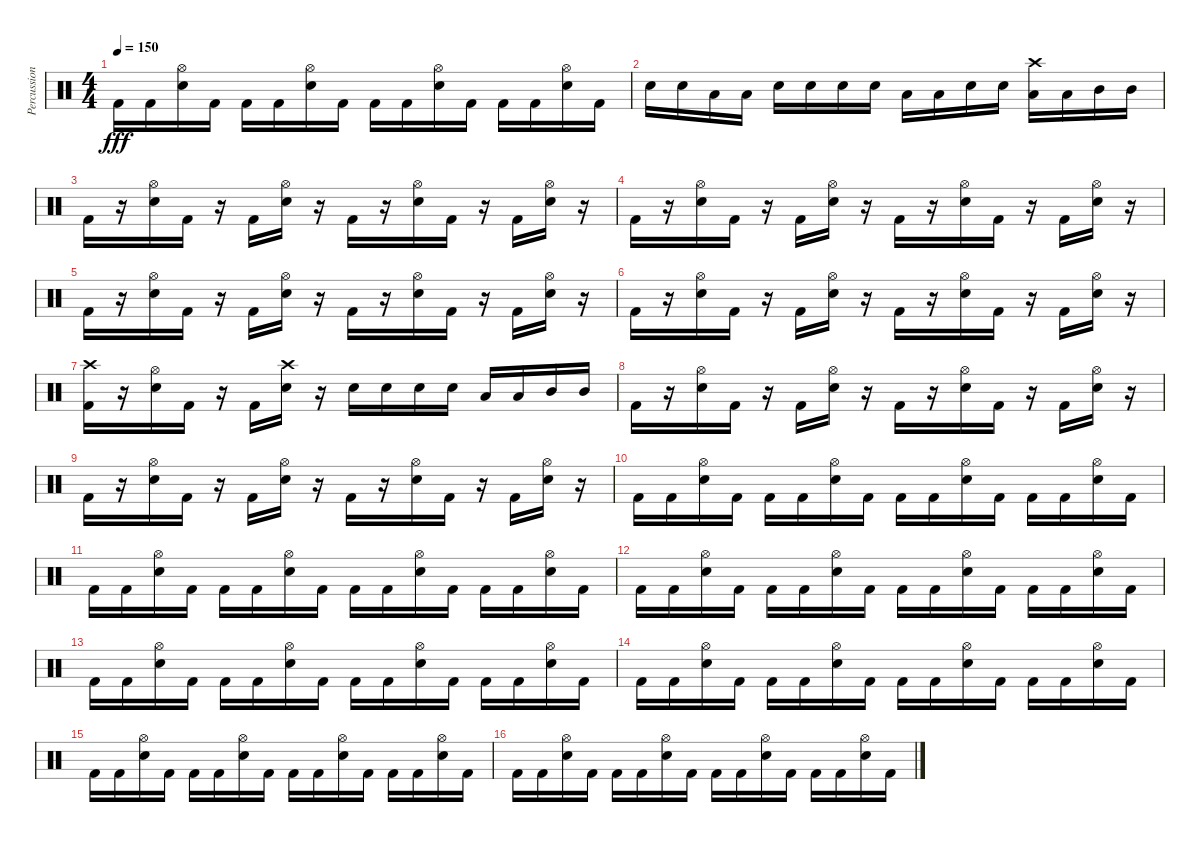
\track ("Percussion" "Percussion") {instrument percussion}
\staff {score}
\articulation defaults
\ts (4 4)
\tempo 150
\clef neutral
\ks c "Kick (hit) 2".16{dy fff} "Kick (hit) 2".16
("Snare (hit) 2" "Hi-Hat (open)").16 "Kick (hit) 2".16 "Kick (hit) 2".16 "Kick (hit) 2".16 ("Snare (hit) 2" "Hi-Hat (open)").16 "Kick (hit) 2".16 "Kick (hit) 2".16 "Kick (hit) 2".16 ("Snare (hit) 2" "Hi-Hat (open)").16 "Kick (hit) 2".16 "Kick (hit) 2".16 "Kick (hit) 2".16 ("Snare (hit) 2" "Hi-Hat (open)").16 "Kick (hit) 2".16 |
"Snare (hit) 2".16 "Snare (hit) 2".16 "Low Tom (hit)".16 "Low Tom (hit)".16 "Snare (hit) 2".16 "Snare (hit) 2".16 "Snare (hit) 2".16 "Snare (hit) 2".16 "Low Tom (hit)".16 "Low Tom (hit)".16 "Snare (hit) 2".16 "Snare (hit) 2".16 ("Low Tom (hit)" "Crash high (hit)").16 "Low Tom (hit)".16 "Mid Tom (hit)".16 "Mid Tom (hit)".16 |
"Kick (hit) 2".16 r.16 ("Snare (hit) 2" "Hi-Hat (open)").16 "Kick (hit) 2".16 r.16 "Kick (hit) 2".16 ("Snare (hit) 2" "Hi-Hat (open)").16 r.16 "Kick (hit) 2".16 r.16 ("Snare (hit) 2" "Hi-Hat (open)").16 "Kick (hit) 2".16 r.16 "Kick (hit) 2".16 ("Snare (hit) 2" "Hi-Hat (open)").16 r.16 |
"Kick (hit) 2".16 r.16 ("Snare (hit) 2" "Hi-Hat (open)").16 "Kick (hit) 2".16 r.16 "Kick (hit) 2".16 ("Snare (hit) 2" "Hi-Hat (open)").16 r.16 "Kick (hit) 2".16 r.16 ("Snare (hit) 2" "Hi-Hat (open)").16 "Kick (hit) 2".16 r.16 "Kick (hit) 2".16 ("Snare (hit) 2" "Hi-Hat (open)").16 r.16 |
"Kick (hit) 2".16 r.16 ("Snare (hit) 2" "Hi-Hat (open)").16 "Kick (hit) 2".16 r.16 "Kick (hit) 2".16 ("Snare (hit) 2" "Hi-Hat (open)").16 r.16 "Kick (hit) 2".16 r.16 ("Snare (hit) 2" "Hi-Hat (open)").16 "Kick (hit) 2".16 r.16 "Kick (hit) 2".16 ("Snare (hit) 2" "Hi-Hat (open)").16 r.16 |
"Kick (hit) 2".16 r.16 ("Snare (hit) 2" "Hi-Hat (open)").16 "Kick (hit) 2".16 r.16 "Kick (hit) 2".16 ("Snare (hit) 2" "Hi-Hat (open)").16 r.16 "Kick (hit) 2".16 r.16 ("Snare (hit) 2" "Hi-Hat (open)").16 "Kick (hit) 2".16 r.16 "Kick (hit) 2".16 ("Snare (hit) 2" "Hi-Hat (open)").16 r.16 |
("Kick (hit) 2" "Crash high (hit)").16 r.16 ("Snare (hit) 2" "Hi-Hat (open)").16 "Kick (hit) 2".16 r.16 "Kick (hit) 2".16 ("Snare (hit) 2" "Crash high (hit)").16 r.16 "Snare (hit) 2".16 "Snare (hit) 2".16 "Snare (hit) 2".16 "Snare (hit) 2".16 "Low Tom (hit)".16 "Low Tom (hit)".16 "Mid Tom (hit)".16 "Mid Tom (hit)".16 |
"Kick (hit) 2".16 r.16 ("Snare (hit) 2" "Hi-Hat (open)").16 "Kick (hit) 2".16 r.16 "Kick (hit) 2".16 ("Snare (hit) 2" "Hi-Hat (open)").16 r.16 "Kick (hit) 2".16 r.16 ("Snare (hit) 2" "Hi-Hat (open)").16 "Kick (hit) 2".16 r.16 "Kick (hit) 2".16 ("Snare (hit) 2" "Hi-Hat (open)").16 r.16 |
"Kick (hit) 2".16 r.16 ("Snare (hit) 2" "Hi-Hat (open)").16 "Kick (hit) 2".16 r.16 "Kick (hit) 2".16 ("Snare (hit) 2" "Hi-Hat (open)").16 r.16 "Kick (hit) 2".16 r.16 ("Snare (hit) 2" "Hi-Hat (open)").16 "Kick (hit) 2".16 r.16 "Kick (hit) 2".16 ("Snare (hit) 2" "Hi-Hat (open)").16 r.16 |
"Kick (hit) 2".16 "Kick (hit) 2".16 ("Snare (hit) 2" "Hi-Hat (open)").16 "Kick (hit) 2".16 "Kick (hit) 2".16 "Kick (hit) 2".16 ("Snare (hit) 2" "Hi-Hat (open)").16 "Kick (hit) 2".16 "Kick (hit) 2".16 "Kick (hit) 2".16 ("Snare (hit) 2" "Hi-Hat (open)").16 "Kick (hit) 2".16 "Kick (hit) 2".16 "Kick (hit) 2".16 ("Snare (hit) 2" "Hi-Hat (open)").16 "Kick (hit) 2".16 |
"Kick (hit) 2".16 "Kick (hit) 2".16 ("Snare (hit) 2" "Hi-Hat (open)").16 "Kick (hit) 2".16 "Kick (hit) 2".16 "Kick (hit) 2".16 ("Snare (hit) 2" "Hi-Hat (open)").16 "Kick (hit) 2".16 "Kick (hit) 2".16 "Kick (hit) 2".16 ("Snare (hit) 2" "Hi-Hat (open)").16 "Kick (hit) 2".16 "Kick (hit) 2".16 "Kick (hit) 2".16 ("Snare (hit) 2" "Hi-Hat (open)").16 "Kick (hit) 2".16 |
"Kick (hit) 2".16 "Kick (hit) 2".16 ("Snare (hit) 2" "Hi-Hat (open)").16 "Kick (hit) 2".16 "Kick (hit) 2".16 "Kick (hit) 2".16 ("Snare (hit) 2" "Hi-Hat (open)").16 "Kick (hit) 2".16 "Kick (hit) 2".16 "Kick (hit) 2".16 ("Snare (hit) 2" "Hi-Hat (open)").16 "Kick (hit) 2".16 "Kick (hit) 2".16 "Kick (hit) 2".16 ("Snare (hit) 2" "Hi-Hat (open)").16 "Kick (hit) 2".16 |
"Kick (hit) 2".16 "Kick (hit) 2".16 ("Snare (hit) 2" "Hi-Hat (open)").16 "Kick (hit) 2".16 "Kick (hit) 2".16 "Kick (hit) 2".16 ("Snare (hit) 2" "Hi-Hat (open)").16 "Kick (hit) 2".16 "Kick (hit) 2".16 "Kick (hit) 2".16 ("Snare (hit) 2" "Hi-Hat (open)").16 "Kick (hit) 2".16 "Kick (hit) 2".16 "Kick (hit) 2".16 ("Snare (hit) 2" "Hi-Hat (open)").16 "Kick (hit) 2".16 |
"Kick (hit) 2".16 "Kick (hit) 2".16 ("Snare (hit) 2" "Hi-Hat (open)").16 "Kick (hit) 2".16 "Kick (hit) 2".16 "Kick (hit) 2".16 ("Snare (hit) 2" "Hi-Hat (open)").16 "Kick (hit) 2".16 "Kick (hit) 2".16 "Kick (hit) 2".16 ("Snare (hit) 2" "Hi-Hat (open)").16 "Kick (hit) 2".16 "Kick (hit) 2".16 "Kick (hit) 2".16 ("Snare (hit) 2" "Hi-Hat (open)").16 "Kick (hit) 2".16 |
"Kick (hit) 2".16 "Kick (hit) 2".16 ("Snare (hit) 2" "Hi-Hat (open)").16 "Kick (hit) 2".16 "Kick (hit) 2".16 "Kick (hit) 2".16 ("Snare (hit) 2" "Hi-Hat (open)").16 "Kick (hit) 2".16 "Kick (hit) 2".16 "Kick (hit) 2".16 ("Snare (hit) 2" "Hi-Hat (open)").16 "Kick (hit) 2".16 "Kick (hit) 2".16 "Kick (hit) 2".16 ("Snare (hit) 2" "Hi-Hat (open)").16 "Kick (hit) 2".16 |
"Kick (hit) 2".16 "Kick (hit) 2".16 ("Snare (hit) 2" "Hi-Hat (open)").16 "Kick (hit) 2".16 "Kick (hit) 2".16 "Kick (hit) 2".16 ("Snare (hit) 2" "Hi-Hat (open)").16 "Kick (hit) 2".16 "Kick (hit) 2".16 "Kick (hit) 2".16 ("Snare (hit) 2" "Hi-Hat (open)").16 "Kick (hit) 2".16 "Kick (hit) 2".16 "Kick (hit) 2".16 ("Snare (hit) 2" "Hi-Hat (open)").16 "Kick (hit) 2".16
